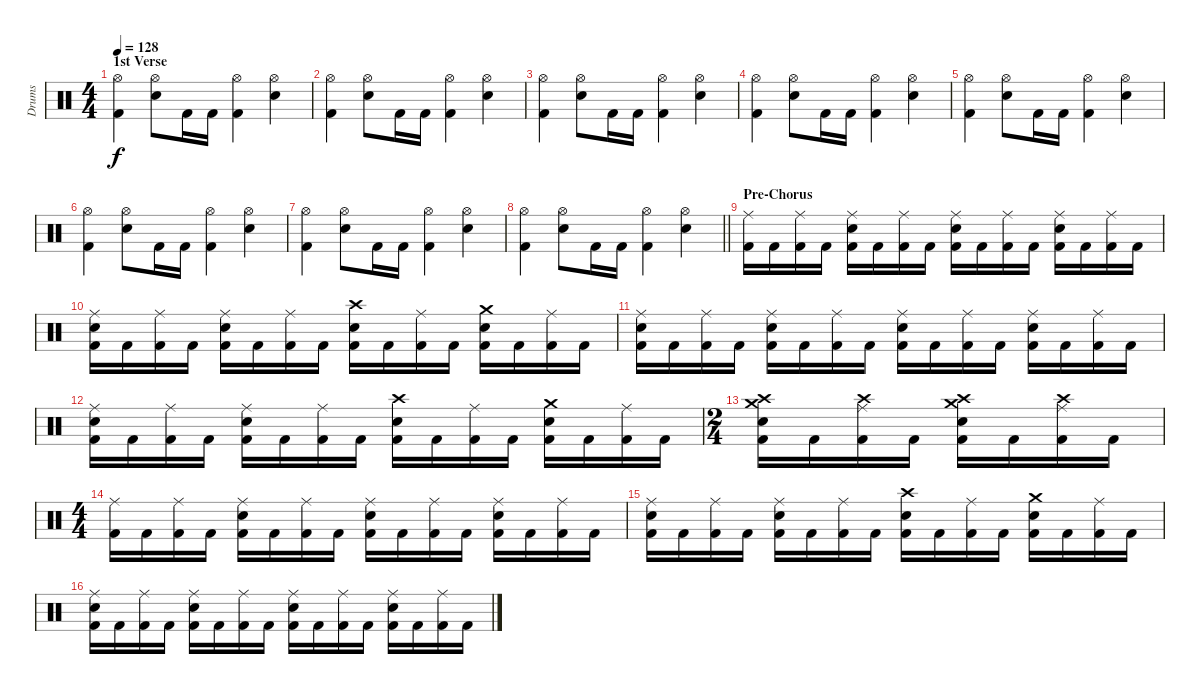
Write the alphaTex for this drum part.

\track ("Drums" "Drums") {instrument percussion}
\staff {score}
\articulation defaults
\ts (4 4)
\section ("" "1st Verse")
\tempo 128
\clef neutral
\ks c
("Hi-Hat (open)" "Kick (hit) 2").4{dy f} ("Hi-Hat (open)" "Snare (hit) 2").8 "Kick (hit) 2".16 "Kick (hit) 2".16 ("Hi-Hat (open)" "Kick (hit) 2").4 ("Hi-Hat (open)" "Snare (hit) 2").4 |
("Hi-Hat (open)" "Kick (hit) 2").4 ("Hi-Hat (open)" "Snare (hit) 2").8 "Kick (hit) 2".16 "Kick (hit) 2".16 ("Hi-Hat (open)" "Kick (hit) 2").4 ("Hi-Hat (open)" "Snare (hit) 2").4 |
("Hi-Hat (open)" "Kick (hit) 2").4 ("Hi-Hat (open)" "Snare (hit) 2").8 "Kick (hit) 2".16 "Kick (hit) 2".16 ("Hi-Hat (open)" "Kick (hit) 2").4 ("Hi-Hat (open)" "Snare (hit) 2").4 |
("Hi-Hat (open)" "Kick (hit) 2").4 ("Hi-Hat (open)" "Snare (hit) 2").8 "Kick (hit) 2".16 "Kick (hit) 2".16 ("Hi-Hat (open)" "Kick (hit) 2").4 ("Hi-Hat (open)" "Snare (hit) 2").4 |
("Hi-Hat (open)" "Kick (hit) 2").4 ("Hi-Hat (open)" "Snare (hit) 2").8 "Kick (hit) 2".16 "Kick (hit) 2".16 ("Hi-Hat (open)" "Kick (hit) 2").4 ("Hi-Hat (open)" "Snare (hit) 2").4 |
("Hi-Hat (open)" "Kick (hit) 2").4 ("Hi-Hat (open)" "Snare (hit) 2").8 "Kick (hit) 2".16 "Kick (hit) 2".16 ("Hi-Hat (open)" "Kick (hit) 2").4 ("Hi-Hat (open)" "Snare (hit) 2").4 |
("Hi-Hat (open)" "Kick (hit) 2").4 ("Hi-Hat (open)" "Snare (hit) 2").8 "Kick (hit) 2".16 "Kick (hit) 2".16 ("Hi-Hat (open)" "Kick (hit) 2").4 ("Hi-Hat (open)" "Snare (hit) 2").4 |
\barLineRight lightlight
("Hi-Hat (open)" "Kick (hit) 2").4 ("Hi-Hat (open)" "Snare (hit) 2").8 "Kick (hit) 2".16 "Kick (hit) 2".16 ("Hi-Hat (open)" "Kick (hit) 2").4 ("Hi-Hat (open)" "Snare (hit) 2").4 |
\section ("" "Pre-Chorus")
("Ride (middle)" "Kick (hit) 2").16 "Kick (hit) 2".16 ("Ride (middle)" "Kick (hit) 2").16 "Kick (hit) 2".16 ("Ride (middle)" "Snare (hit) 2" "Kick (hit) 2").16 "Kick (hit) 2".16 ("Ride (middle)" "Kick (hit) 2").16 "Kick (hit) 2".16 ("Ride (middle)" "Snare (hit) 2" "Kick (hit) 2").16 "Kick (hit) 2".16 ("Ride (middle)" "Kick (hit) 2").16 "Kick (hit) 2".16 ("Ride (middle)" "Snare (hit) 2" "Kick (hit) 2").16 "Kick (hit) 2".16 ("Ride (middle)" "Kick (hit) 2").16 "Kick (hit) 2".16 |
("Ride (middle)" "Snare (hit) 2" "Kick (hit) 2").16 "Kick (hit) 2".16 ("Ride (middle)" "Kick (hit) 2").16 "Kick (hit) 2".16 ("Ride (middle)" "Snare (hit) 2" "Kick (hit) 2").16 "Kick (hit) 2".16 ("Ride (middle)" "Kick (hit) 2").16 "Kick (hit) 2".16 ("Crash high (hit)" "Snare (hit) 2" "Kick (hit) 2").16 "Kick (hit) 2".16 ("Ride (middle)" "Kick (hit) 2").16 "Kick (hit) 2".16 ("Crash medium (hit)" "Snare (hit) 2" "Kick (hit) 2").16 "Kick (hit) 2".16 ("Ride (middle)" "Kick (hit) 2").16 "Kick (hit) 2".16 |
("Ride (middle)" "Snare (hit) 2" "Kick (hit) 2").16 "Kick (hit) 2".16 ("Ride (middle)" "Kick (hit) 2").16 "Kick (hit) 2".16 ("Ride (middle)" "Snare (hit) 2" "Kick (hit) 2").16 "Kick (hit) 2".16 ("Ride (middle)" "Kick (hit) 2").16 "Kick (hit) 2".16 ("Ride (middle)" "Snare (hit) 2" "Kick (hit) 2").16 "Kick (hit) 2".16 ("Ride (middle)" "Kick (hit) 2").16 "Kick (hit) 2".16 ("Ride (middle)" "Snare (hit) 2" "Kick (hit) 2").16 "Kick (hit) 2".16 ("Ride (middle)" "Kick (hit) 2").16 "Kick (hit) 2".16 |
("Ride (middle)" "Snare (hit) 2" "Kick (hit) 2").16 "Kick (hit) 2".16 ("Ride (middle)" "Kick (hit) 2").16 "Kick (hit) 2".16 ("Ride (middle)" "Snare (hit) 2" "Kick (hit) 2").16 "Kick (hit) 2".16 ("Ride (middle)" "Kick (hit) 2").16 "Kick (hit) 2".16 ("Crash high (hit)" "Snare (hit) 2" "Kick (hit) 2").16 "Kick (hit) 2".16 ("Ride (middle)" "Kick (hit) 2").16 "Kick (hit) 2".16 ("Crash medium (hit)" "Snare (hit) 2" "Kick (hit) 2").16 "Kick (hit) 2".16 ("Ride (middle)" "Kick (hit) 2").16 "Kick (hit) 2".16 |
\ts (2 4)
("Crash high (hit)" "Crash medium (hit)" "Snare (hit) 2" "Kick (hit) 2").16 "Kick (hit) 2".16 ("Ride (middle)" "Crash high (hit)" "Kick (hit) 2").16 "Kick (hit) 2".16 ("Crash medium (hit)" "Crash high (hit)" "Snare (hit) 2" "Kick (hit) 2").16 "Kick (hit) 2".16 ("Ride (middle)" "Crash high (hit)" "Kick (hit) 2").16 "Kick (hit) 2".16 |
\ts (4 4)
("Ride (middle)" "Kick (hit) 2").16 "Kick (hit) 2".16 ("Ride (middle)" "Kick (hit) 2").16 "Kick (hit) 2".16 ("Ride (middle)" "Snare (hit) 2" "Kick (hit) 2").16 "Kick (hit) 2".16 ("Ride (middle)" "Kick (hit) 2").16 "Kick (hit) 2".16 ("Ride (middle)" "Snare (hit) 2" "Kick (hit) 2").16 "Kick (hit) 2".16 ("Ride (middle)" "Kick (hit) 2").16 "Kick (hit) 2".16 ("Ride (middle)" "Snare (hit) 2" "Kick (hit) 2").16 "Kick (hit) 2".16 ("Ride (middle)" "Kick (hit) 2").16 "Kick (hit) 2".16 |
("Ride (middle)" "Snare (hit) 2" "Kick (hit) 2").16 "Kick (hit) 2".16 ("Ride (middle)" "Kick (hit) 2").16 "Kick (hit) 2".16 ("Ride (middle)" "Snare (hit) 2" "Kick (hit) 2").16 "Kick (hit) 2".16 ("Ride (middle)" "Kick (hit) 2").16 "Kick (hit) 2".16 ("Crash high (hit)" "Snare (hit) 2" "Kick (hit) 2").16 "Kick (hit) 2".16 ("Ride (middle)" "Kick (hit) 2").16 "Kick (hit) 2".16 ("Crash medium (hit)" "Snare (hit) 2" "Kick (hit) 2").16 "Kick (hit) 2".16 ("Ride (middle)" "Kick (hit) 2").16 "Kick (hit) 2".16 |
("Ride (middle)" "Snare (hit) 2" "Kick (hit) 2").16 "Kick (hit) 2".16 ("Ride (middle)" "Kick (hit) 2").16 "Kick (hit) 2".16 ("Ride (middle)" "Snare (hit) 2" "Kick (hit) 2").16 "Kick (hit) 2".16 ("Ride (middle)" "Kick (hit) 2").16 "Kick (hit) 2".16 ("Ride (middle)" "Snare (hit) 2" "Kick (hit) 2").16 "Kick (hit) 2".16 ("Ride (middle)" "Kick (hit) 2").16 "Kick (hit) 2".16 ("Ride (middle)" "Snare (hit) 2" "Kick (hit) 2").16 "Kick (hit) 2".16 ("Ride (middle)" "Kick (hit) 2").16 "Kick (hit) 2".16
